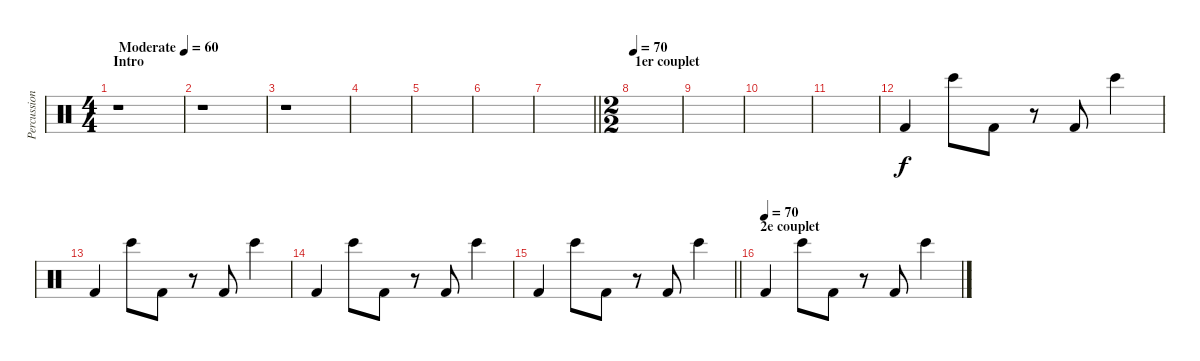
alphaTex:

\track ("Percussions" "Percussion") {instrument percussion}
\staff {score}
\articulation defaults
\ts (4 4)
\section ("" "Intro")
\tempo (60 "Moderate")
\clef neutral
\ks c
r.1{dy f} |
r.1 |
r.1 |
|
|
|
\barLineRight lightlight
|
\ts (2 2)
\section ("" "1er couplet")
\tempo 80
\tempo 70
|
|
|
|
"Kick (hit) 2".4 "Bongo High (hit)".8 "Kick (hit) 2".8 r.8 "Kick (hit) 2".8 "Bongo High (hit)".4 |
"Kick (hit) 2".4 "Bongo High (hit)".8 "Kick (hit) 2".8 r.8 "Kick (hit) 2".8 "Bongo High (hit)".4 |
"Kick (hit) 2".4 "Bongo High (hit)".8 "Kick (hit) 2".8 r.8 "Kick (hit) 2".8 "Bongo High (hit)".4 |
\barLineRight lightlight "Kick (hit) 2".4 "Bongo High (hit)".8 "Kick (hit) 2".8
r.8 "Kick (hit) 2".8 "Bongo High (hit)".4 |
\section ("" "2e couplet")
\tempo (70)
"Kick (hit) 2".4 "Bongo High (hit)".8 "Kick (hit) 2".8 r.8 "Kick (hit) 2".8 "Bongo High (hit)".4
